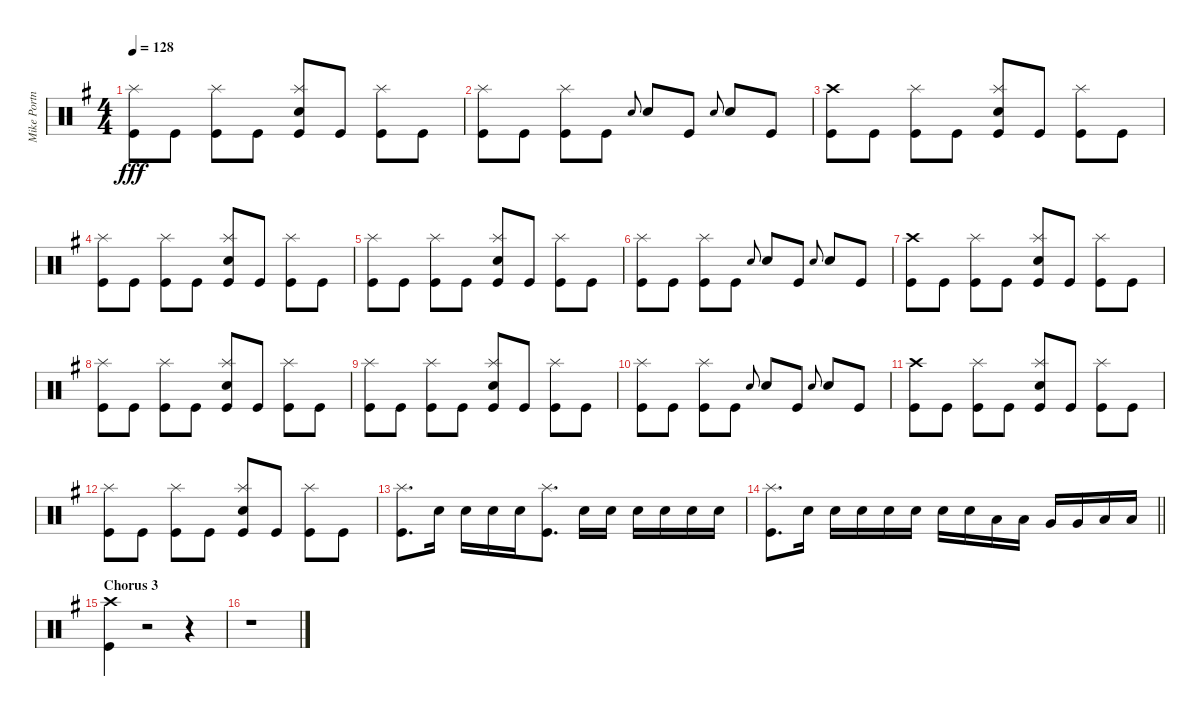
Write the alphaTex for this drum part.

\track ("Mike Portnoy" "Mike Portn") {instrument percussion}
\staff {score}
\articulation defaults
\ts (4 4)
\tempo 128
\clef neutral
\ks eminor
("Kick (hit)" "Splash (hit)").8{dy fff} "Kick (hit)".8 ("Kick (hit)" "Splash (hit)").8 "Kick (hit)".8 ("Kick (hit)" "Splash (hit)" "Snare (hit) 2").8 "Kick (hit)".8 ("Kick (hit)" "Splash (hit)").8 "Kick (hit)".8 |
("Kick (hit)" "Splash (hit)").8 "Kick (hit)".8 ("Kick (hit)" "Splash (hit)").8 "Kick (hit)".8 "Snare (hit) 2".8{gr onbeat} "Snare (hit) 2".8 "Kick (hit)".8 "Snare (hit) 2".8{gr onbeat} "Snare (hit) 2".8 "Kick (hit)".8 |
("Kick (hit)" "Crash high (hit)").8 "Kick (hit)".8 ("Kick (hit)" "Splash (hit)").8 "Kick (hit)".8 ("Kick (hit)" "Splash (hit)" "Snare (hit) 2").8 "Kick (hit)".8 ("Kick (hit)" "Splash (hit)").8 "Kick (hit)".8 |
("Kick (hit)" "Splash (hit)").8 "Kick (hit)".8 ("Kick (hit)" "Splash (hit)").8 "Kick (hit)".8 ("Kick (hit)" "Splash (hit)" "Snare (hit) 2").8 "Kick (hit)".8 ("Kick (hit)" "Splash (hit)").8 "Kick (hit)".8 |
("Kick (hit)" "Splash (hit)").8 "Kick (hit)".8 ("Kick (hit)" "Splash (hit)").8 "Kick (hit)".8 ("Kick (hit)" "Splash (hit)" "Snare (hit) 2").8 "Kick (hit)".8 ("Kick (hit)" "Splash (hit)").8 "Kick (hit)".8 |
("Kick (hit)" "Splash (hit)").8 "Kick (hit)".8 ("Kick (hit)" "Splash (hit)").8 "Kick (hit)".8 "Snare (hit) 2".8{gr onbeat} "Snare (hit) 2".8 "Kick (hit)".8 "Snare (hit) 2".8{gr onbeat} "Snare (hit) 2".8 "Kick (hit)".8 |
("Kick (hit)" "Crash high (hit)").8 "Kick (hit)".8 ("Kick (hit)" "Splash (hit)").8 "Kick (hit)".8 ("Kick (hit)" "Splash (hit)" "Snare (hit) 2").8 "Kick (hit)".8 ("Kick (hit)" "Splash (hit)").8 "Kick (hit)".8 |
("Kick (hit)" "Splash (hit)").8 "Kick (hit)".8 ("Kick (hit)" "Splash (hit)").8 "Kick (hit)".8 ("Kick (hit)" "Splash (hit)" "Snare (hit) 2").8 "Kick (hit)".8 ("Kick (hit)" "Splash (hit)").8 "Kick (hit)".8 |
("Kick (hit)" "Splash (hit)").8 "Kick (hit)".8 ("Kick (hit)" "Splash (hit)").8 "Kick (hit)".8 ("Kick (hit)" "Splash (hit)" "Snare (hit) 2").8 "Kick (hit)".8 ("Kick (hit)" "Splash (hit)").8 "Kick (hit)".8 |
("Kick (hit)" "Splash (hit)").8 "Kick (hit)".8 ("Kick (hit)" "Splash (hit)").8 "Kick (hit)".8 "Snare (hit) 2".8{gr onbeat} "Snare (hit) 2".8 "Kick (hit)".8 "Snare (hit) 2".8{gr onbeat} "Snare (hit) 2".8 "Kick (hit)".8 |
("Kick (hit)" "Crash high (hit)").8 "Kick (hit)".8 ("Kick (hit)" "Splash (hit)").8 "Kick (hit)".8 ("Kick (hit)" "Splash (hit)" "Snare (hit) 2").8 "Kick (hit)".8 ("Kick (hit)" "Splash (hit)").8 "Kick (hit)".8 |
("Kick (hit)" "Splash (hit)").8 "Kick (hit)".8 ("Kick (hit)" "Splash (hit)").8 "Kick (hit)".8 ("Kick (hit)" "Splash (hit)" "Snare (hit) 2").8 "Kick (hit)".8 ("Kick (hit)" "Splash (hit)").8 "Kick (hit)".8 |
("Kick (hit)" "Splash (hit)").8{d} "Snare (hit) 2".16 "Snare (hit) 2".16 "Snare (hit) 2".16 "Snare (hit) 2".16 ("Kick (hit)" "Splash (hit)").8{d} "Snare (hit) 2".16 "Snare (hit) 2".16 "Snare (hit) 2".16 "Snare (hit) 2".16 "Snare (hit) 2".16 "Snare (hit) 2".16 |
\barLineRight lightlight
("Kick (hit)" "Splash (hit)").8{d} "Snare (hit) 2".16 "Snare (hit) 2".16 "Snare (hit) 2".16 "Snare (hit) 2".16 "Snare (hit) 2".16 "Snare (hit) 2".16 "Snare (hit) 2".16 "Low Tom (hit)".16 "Low Tom (hit)".16 "Very Low Tom (hit)".16 "Very Low Tom (hit)".16 "Low Floor Tom (hit)".16 "Low Floor Tom (hit)".16 |
\section ("" "Chorus 3")
("Kick (hit)" "Crash high (hit)").4 r.2 r.4 |
r.1
